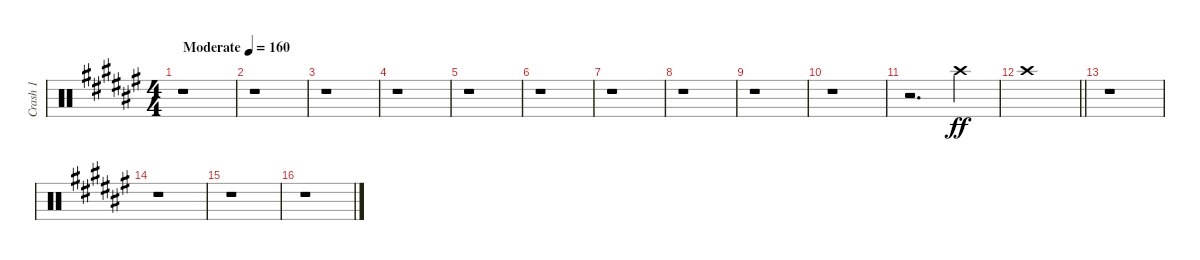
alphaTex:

\track ("Crash 1" "Crash 1") {instrument percussion}
\staff {score}
\articulation defaults
\ts (4 4)
\tempo (160 "Moderate")
\clef neutral
\ks d#minor
r.1{dy ff} |
r.1 |
r.1 |
r.1 |
r.1 |
r.1 |
r.1 |
r.1 |
r.1 |
r.1 |
r.2{d} "Crash high (hit)".4 |
\barLineRight lightlight "Crash high (hit)".1
|
r.1 |
r.1 |
r.1 |
r.1
